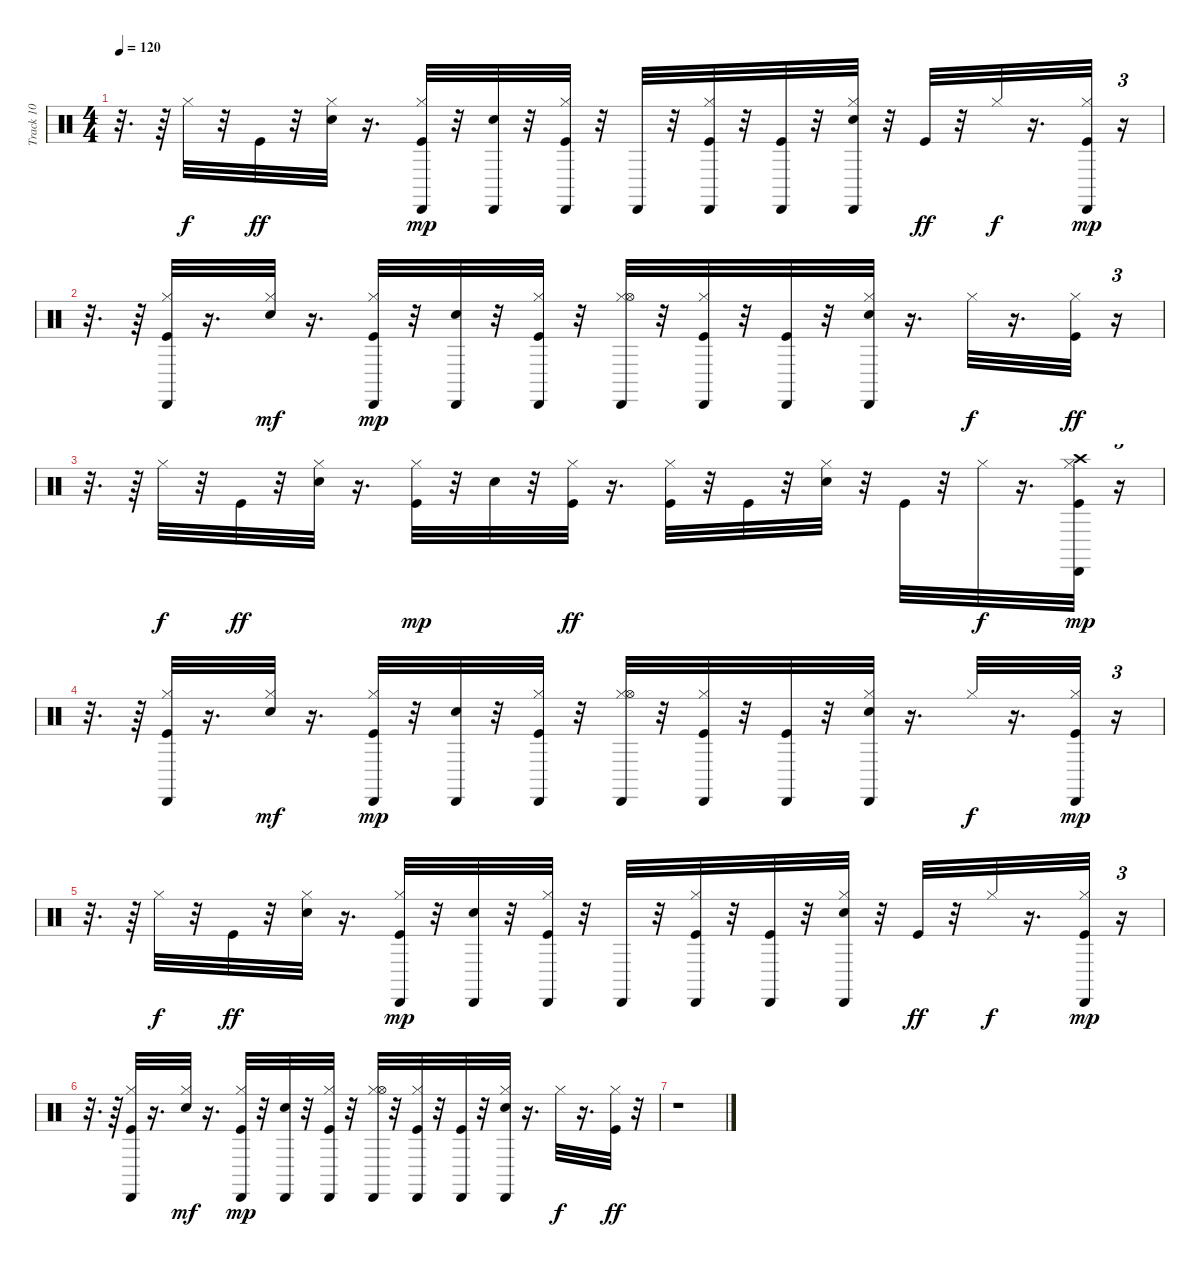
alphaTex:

\track ("Track 10" "Track 10") {instrument percussion}
\staff {score}
\articulation defaults
\ts (4 4)
\tempo 120
\clef neutral
\ks c
r.32{d dy mp} r.64 "Hi-Hat (closed)".32{dy f} r.32 "Kick (hit)".32{dy ff} r.32 ("Electric Snare (hit)" "Hi-Hat (closed)").32 r.16{d} ("Kick (hit)" "Hi-Hat (closed)" "Cabasa (hit)").32{dy mp} r.32 ("Electric Snare (hit)" "Cabasa (hit)").32 r.32 ("Kick (hit)" "Hi-Hat (closed)" "Cabasa (hit)").32 r.32 "Cabasa (hit)".32 r.32 ("Kick (hit)" "Hi-Hat (closed)" "Cabasa (hit)").32 r.32 ("Kick (hit)" "Cabasa (hit)").32 r.32 ("Electric Snare (hit)" "Hi-Hat (closed)" "Cabasa (hit)").32 r.32 "Kick (hit)".32{dy ff} r.32 "Hi-Hat (closed)".32{dy f} r.16{d} ("Kick (hit)" "Hi-Hat (closed)" "Cabasa (hit)").32{dy mp} r.16{tu (3 2)} |
r.32{d} r.64 ("Kick (hit)" "Hi-Hat (closed)" "Cabasa (hit)").32 r.16{d} ("Electric Snare (hit)" "Hi-Hat (closed)").32{dy mf} r.16{d} ("Kick (hit)" "Hi-Hat (closed)" "Cabasa (hit)").32{dy mp} r.32 ("Electric Snare (hit)" "Cabasa (hit)").32 r.32 ("Kick (hit)" "Hi-Hat (closed)" "Cabasa (hit)").32 r.32 ("Hi-Hat (closed)" "Hi-Hat (open)" "Cabasa (hit)").32 r.32 ("Kick (hit)" "Hi-Hat (closed)" "Cabasa (hit)").32 r.32 ("Kick (hit)" "Cabasa (hit)").32 r.32 ("Electric Snare (hit)" "Hi-Hat (closed)" "Cabasa (hit)").32 r.16{d} "Hi-Hat (closed)".32{dy f} r.16{d} ("Kick (hit)" "Hi-Hat (closed)").32{dy ff} r.16{tu (3 2)} |
r.32{d} r.64 "Hi-Hat (closed)".32{dy f} r.32 "Kick (hit)".32{dy ff} r.32 ("Electric Snare (hit)" "Hi-Hat (closed)").32 r.16{d} ("Kick (hit)" "Hi-Hat (closed)").32{dy mp} r.32 "Electric Snare (hit)".32 r.32 ("Kick (hit)" "Hi-Hat (closed)").32{dy ff} r.16{d} ("Kick (hit)" "Hi-Hat (closed)").32 r.32 "Kick (hit)".32 r.32 ("Electric Snare (hit)" "Hi-Hat (closed)").32 r.32 "Kick (hit)".32 r.32 "Hi-Hat (closed)".32{dy f} r.16{d} ("Kick (hit)" "Hi-Hat (closed)" "Crash high (hit)" "Cabasa (hit)").32{dy mp} r.16{tu (3 2)} |
r.32{d} r.64 ("Kick (hit)" "Hi-Hat (closed)" "Cabasa (hit)").32 r.16{d} ("Electric Snare (hit)" "Hi-Hat (closed)").32{dy mf} r.16{d} ("Kick (hit)" "Hi-Hat (closed)" "Cabasa (hit)").32{dy mp} r.32 ("Electric Snare (hit)" "Cabasa (hit)").32 r.32 ("Kick (hit)" "Hi-Hat (closed)" "Cabasa (hit)").32 r.32 ("Hi-Hat (closed)" "Hi-Hat (open)" "Cabasa (hit)").32 r.32 ("Kick (hit)" "Hi-Hat (closed)" "Cabasa (hit)").32 r.32 ("Kick (hit)" "Cabasa (hit)").32 r.32 ("Electric Snare (hit)" "Hi-Hat (closed)" "Cabasa (hit)").32 r.16{d} "Hi-Hat (closed)".32{dy f} r.16{d} ("Kick (hit)" "Hi-Hat (closed)" "Cabasa (hit)").32{dy mp} r.16{tu (3 2)} |
r.32{d} r.64 "Hi-Hat (closed)".32{dy f} r.32 "Kick (hit)".32{dy ff} r.32 ("Electric Snare (hit)" "Hi-Hat (closed)").32 r.16{d} ("Kick (hit)" "Hi-Hat (closed)" "Cabasa (hit)").32{dy mp} r.32 ("Electric Snare (hit)" "Cabasa (hit)").32 r.32 ("Kick (hit)" "Hi-Hat (closed)" "Cabasa (hit)").32 r.32 "Cabasa (hit)".32 r.32 ("Kick (hit)" "Hi-Hat (closed)" "Cabasa (hit)").32 r.32 ("Kick (hit)" "Cabasa (hit)").32 r.32 ("Electric Snare (hit)" "Hi-Hat (closed)" "Cabasa (hit)").32 r.32 "Kick (hit)".32{dy ff} r.32 "Hi-Hat (closed)".32{dy f} r.16{d} ("Kick (hit)" "Hi-Hat (closed)" "Cabasa (hit)").32{dy mp} r.16{tu (3 2)} |
r.32{d} r.64 ("Kick (hit)" "Hi-Hat (closed)" "Cabasa (hit)").32 r.16{d} ("Electric Snare (hit)" "Hi-Hat (closed)").32{dy mf} r.16{d} ("Kick (hit)" "Hi-Hat (closed)" "Cabasa (hit)").32{dy mp} r.32 ("Electric Snare (hit)" "Cabasa (hit)").32 r.32 ("Kick (hit)" "Hi-Hat (closed)" "Cabasa (hit)").32 r.32 ("Hi-Hat (closed)" "Hi-Hat (open)" "Cabasa (hit)").32 r.32 ("Kick (hit)" "Hi-Hat (closed)" "Cabasa (hit)").32 r.32 ("Kick (hit)" "Cabasa (hit)").32 r.32 ("Electric Snare (hit)" "Hi-Hat (closed)" "Cabasa (hit)").32 r.16{d} "Hi-Hat (closed)".32{dy f} r.16{d} ("Kick (hit)" "Hi-Hat (closed)").32{dy ff} r.32 |
r.1
